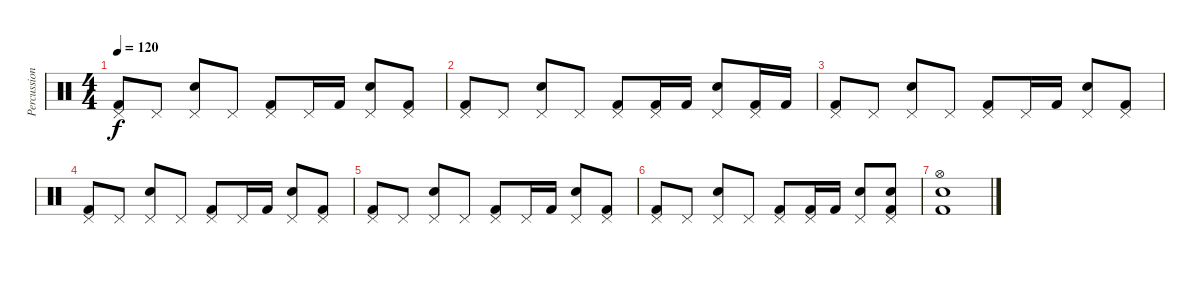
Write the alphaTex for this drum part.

\track ("Percussion" "Percussion") {instrument percussion}
\staff {score}
\articulation defaults
\ts (4 4)
\tempo 120
\clef neutral
\ks c
("Kick (hit) 2" "Pedal Hi-Hat (hit)").8{dy f} "Pedal Hi-Hat (hit)".8 ("Electric Snare (hit)" "Pedal Hi-Hat (hit)").8 "Pedal Hi-Hat (hit)".8 ("Kick (hit) 2" "Pedal Hi-Hat (hit)").8 "Pedal Hi-Hat (hit)".16 "Kick (hit) 2".16 ("Electric Snare (hit)" "Pedal Hi-Hat (hit)").8 ("Kick (hit) 2" "Pedal Hi-Hat (hit)").8 |
("Kick (hit) 2" "Pedal Hi-Hat (hit)").8 "Pedal Hi-Hat (hit)".8 ("Electric Snare (hit)" "Pedal Hi-Hat (hit)").8 "Pedal Hi-Hat (hit)".8 ("Kick (hit) 2" "Pedal Hi-Hat (hit)").8 ("Kick (hit) 2" "Pedal Hi-Hat (hit)").16 "Kick (hit) 2".16 ("Electric Snare (hit)" "Pedal Hi-Hat (hit)").8 ("Kick (hit) 2" "Pedal Hi-Hat (hit)").16 "Kick (hit) 2".16 |
("Kick (hit) 2" "Pedal Hi-Hat (hit)").8 "Pedal Hi-Hat (hit)".8 ("Electric Snare (hit)" "Pedal Hi-Hat (hit)").8 "Pedal Hi-Hat (hit)".8 ("Kick (hit) 2" "Pedal Hi-Hat (hit)").8 "Pedal Hi-Hat (hit)".16 "Kick (hit) 2".16 ("Electric Snare (hit)" "Pedal Hi-Hat (hit)").8 ("Kick (hit) 2" "Pedal Hi-Hat (hit)").8 |
("Kick (hit) 2" "Pedal Hi-Hat (hit)").8 "Pedal Hi-Hat (hit)".8 ("Electric Snare (hit)" "Pedal Hi-Hat (hit)").8 "Pedal Hi-Hat (hit)".8 ("Kick (hit) 2" "Pedal Hi-Hat (hit)").8 "Pedal Hi-Hat (hit)".16 "Kick (hit) 2".16 ("Electric Snare (hit)" "Pedal Hi-Hat (hit)").8 ("Kick (hit) 2" "Pedal Hi-Hat (hit)").8 |
("Kick (hit) 2" "Pedal Hi-Hat (hit)").8 "Pedal Hi-Hat (hit)".8 ("Electric Snare (hit)" "Pedal Hi-Hat (hit)").8 "Pedal Hi-Hat (hit)".8 ("Kick (hit) 2" "Pedal Hi-Hat (hit)").8 "Pedal Hi-Hat (hit)".16 "Kick (hit) 2".16 ("Electric Snare (hit)" "Pedal Hi-Hat (hit)").8 ("Kick (hit) 2" "Pedal Hi-Hat (hit)").8 |
("Kick (hit) 2" "Pedal Hi-Hat (hit)").8 "Pedal Hi-Hat (hit)".8 ("Electric Snare (hit)" "Pedal Hi-Hat (hit)").8 "Pedal Hi-Hat (hit)".8 ("Kick (hit) 2" "Pedal Hi-Hat (hit)").8 ("Kick (hit) 2" "Pedal Hi-Hat (hit)").16 "Kick (hit) 2".16 ("Electric Snare (hit)" "Pedal Hi-Hat (hit)").8 ("Electric Snare (hit)" "Kick (hit) 2" "Pedal Hi-Hat (hit)").8 |
("Electric Snare (hit)" "Kick (hit) 2" "Hi-Hat (open)").1
